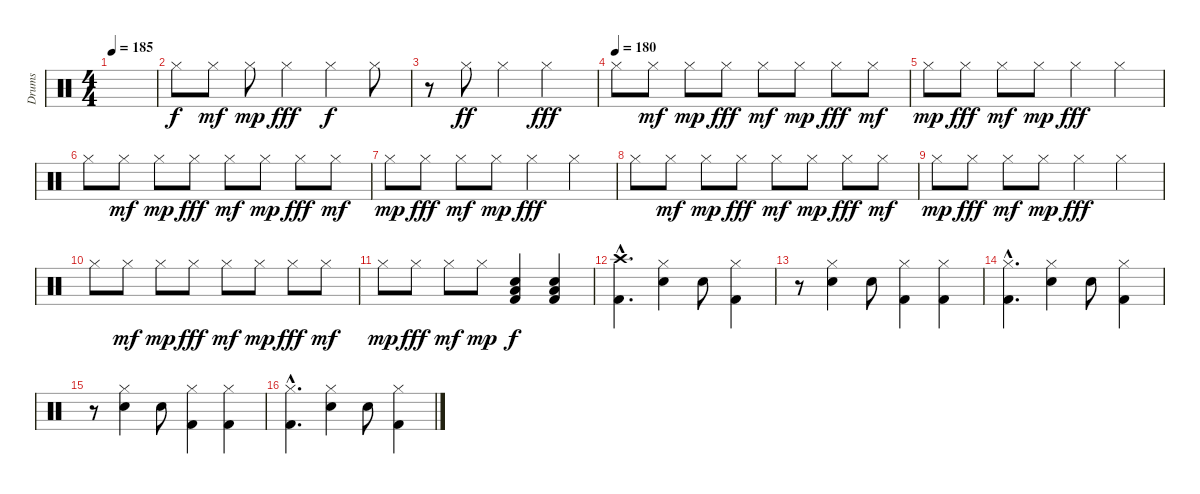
\track ("Drums" "Drums") {instrument percussion}
\staff {score}
\articulation defaults
\ts (4 4)
\tempo 185
\clef neutral
\ks c
|
"Hi-Hat (closed)".8 "Hi-Hat (closed)".8{dy mf} "Hi-Hat (closed)".8{dy mp} "Hi-Hat (closed)".4{dy fff} "Hi-Hat (closed)".4{dy f} "Hi-Hat (closed)".8 |
r.8 "Hi-Hat (closed)".8{dy ff} "Hi-Hat (closed)".4 "Hi-Hat (closed)".2{dy fff} |
\tempo (180)
"Hi-Hat (closed)".8 "Hi-Hat (closed)".8{dy mf} "Hi-Hat (closed)".8{dy mp} "Hi-Hat (closed)".8{dy fff} "Hi-Hat (closed)".8{dy mf} "Hi-Hat (closed)".8{dy mp} "Hi-Hat (closed)".8{dy fff} "Hi-Hat (closed)".8{dy mf} |
"Hi-Hat (closed)".8{dy mp} "Hi-Hat (closed)".8{dy fff} "Hi-Hat (closed)".8{dy mf} "Hi-Hat (closed)".8{dy mp} "Hi-Hat (closed)".4{dy fff} "Hi-Hat (closed)".4 |
"Hi-Hat (closed)".8 "Hi-Hat (closed)".8{dy mf} "Hi-Hat (closed)".8{dy mp} "Hi-Hat (closed)".8{dy fff} "Hi-Hat (closed)".8{dy mf} "Hi-Hat (closed)".8{dy mp} "Hi-Hat (closed)".8{dy fff} "Hi-Hat (closed)".8{dy mf} |
"Hi-Hat (closed)".8{dy mp} "Hi-Hat (closed)".8{dy fff} "Hi-Hat (closed)".8{dy mf} "Hi-Hat (closed)".8{dy mp} "Hi-Hat (closed)".4{dy fff} "Hi-Hat (closed)".4 |
"Hi-Hat (closed)".8 "Hi-Hat (closed)".8{dy mf} "Hi-Hat (closed)".8{dy mp} "Hi-Hat (closed)".8{dy fff} "Hi-Hat (closed)".8{dy mf} "Hi-Hat (closed)".8{dy mp} "Hi-Hat (closed)".8{dy fff} "Hi-Hat (closed)".8{dy mf} |
"Hi-Hat (closed)".8{dy mp} "Hi-Hat (closed)".8{dy fff} "Hi-Hat (closed)".8{dy mf} "Hi-Hat (closed)".8{dy mp} "Hi-Hat (closed)".4{dy fff} "Hi-Hat (closed)".4 |
"Hi-Hat (closed)".8 "Hi-Hat (closed)".8{dy mf} "Hi-Hat (closed)".8{dy mp} "Hi-Hat (closed)".8{dy fff} "Hi-Hat (closed)".8{dy mf} "Hi-Hat (closed)".8{dy mp} "Hi-Hat (closed)".8{dy fff} "Hi-Hat (closed)".8{dy mf} |
"Hi-Hat (closed)".8{dy mp} "Hi-Hat (closed)".8{dy fff} "Hi-Hat (closed)".8{dy mf} "Hi-Hat (closed)".8{dy mp} ("Low Tom (hit)" "Snare (hit) 2" "Kick (hit) 2").4{dy f} ("Low Tom (hit)" "Snare (hit) 2" "Kick (hit) 2").4 |
("Crash high (hit)"{hac} "Kick (hit) 2"{hac}).4{d} ("Hi-Hat (closed)" "Snare (hit) 2").4 "Snare (hit) 2".8 ("Hi-Hat (closed)" "Kick (hit) 2").4 |
r.8 ("Hi-Hat (closed)" "Snare (hit) 2").4 "Snare (hit) 2".8 ("Hi-Hat (closed)" "Kick (hit) 2").4 ("Hi-Hat (closed)" "Kick (hit) 2").4 |
("Hi-Hat (closed)"{hac} "Kick (hit) 2"{hac}).4{d} ("Hi-Hat (closed)" "Snare (hit) 2").4 "Snare (hit) 2".8 ("Hi-Hat (closed)" "Kick (hit) 2").4 |
r.8 ("Hi-Hat (closed)" "Snare (hit) 2").4 "Snare (hit) 2".8 ("Hi-Hat (closed)" "Kick (hit) 2").4 ("Hi-Hat (closed)" "Kick (hit) 2").4 |
("Hi-Hat (closed)"{hac} "Kick (hit) 2"{hac}).4{d} ("Hi-Hat (closed)" "Snare (hit) 2").4 "Snare (hit) 2".8 ("Hi-Hat (closed)" "Kick (hit) 2").4
